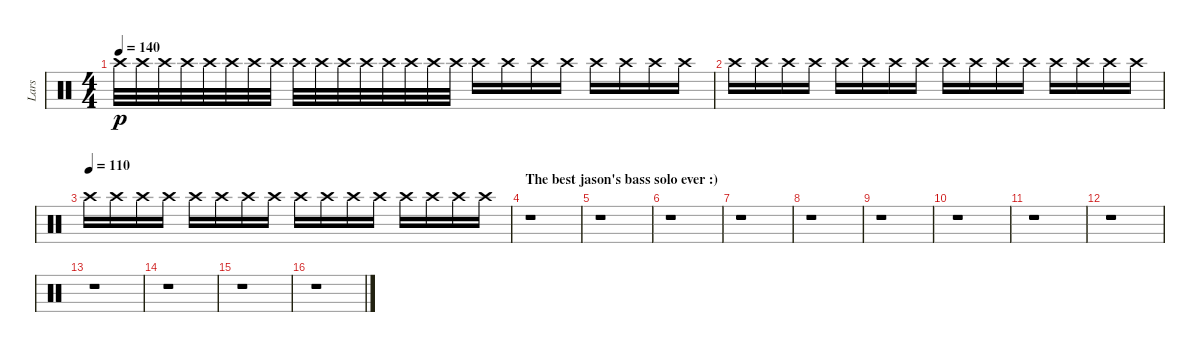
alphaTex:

\track ("Lars" "Lars") {instrument percussion}
\staff {score}
\articulation defaults
\ts (4 4)
\tempo 140
\clef neutral
\ks c "Crash high (hit)".32{dy p} "Crash high (hit)".32 "Crash high (hit)".32 "Crash high (hit)".32 "Crash high (hit)".32 "Crash high (hit)".32 "Crash high (hit)".32 "Crash high (hit)".32 "Crash high (hit)".32 "Crash high (hit)".32 "Crash high (hit)".32 "Crash high (hit)".32 "Crash high (hit)".32 "Crash high (hit)".32 "Crash high (hit)".32 "Crash high (hit)".32 "Crash high (hit)".16 "Crash high (hit)".16 "Crash high (hit)".16 "Crash high (hit)".16 "Crash high (hit)".16 "Crash high (hit)".16 "Crash high (hit)".16 "Crash high (hit)".16
|
"Crash high (hit)".16 "Crash high (hit)".16 "Crash high (hit)".16 "Crash high (hit)".16 "Crash high (hit)".16 "Crash high (hit)".16 "Crash high (hit)".16 "Crash high (hit)".16 "Crash high (hit)".16 "Crash high (hit)".16 "Crash high (hit)".16 "Crash high (hit)".16 "Crash high (hit)".16 "Crash high (hit)".16 "Crash high (hit)".16 "Crash high (hit)".16 |
\tempo (110)
"Crash high (hit)".16 "Crash high (hit)".16 "Crash high (hit)".16 "Crash high (hit)".16 "Crash high (hit)".16 "Crash high (hit)".16 "Crash high (hit)".16 "Crash high (hit)".16 "Crash high (hit)".16 "Crash high (hit)".16 "Crash high (hit)".16 "Crash high (hit)".16 "Crash high (hit)".16 "Crash high (hit)".16 "Crash high (hit)".16 "Crash high (hit)".16 |
\section ("" "The best jason's bass solo ever :)")
r.1 |
r.1 |
r.1 |
r.1 |
r.1 |
r.1 |
r.1 |
r.1 |
r.1 |
r.1 |
r.1 |
r.1 |
r.1
